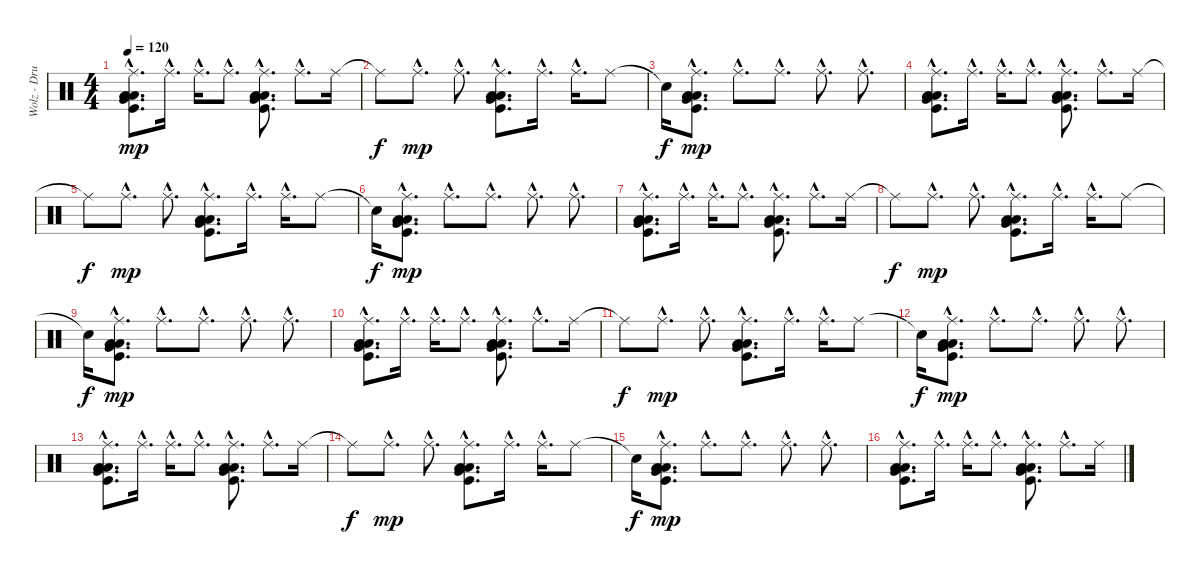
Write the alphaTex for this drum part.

\track ("Wolz - Drums" "Wolz - Dru") {instrument percussion}
\staff {score}
\articulation defaults
\ts (4 4)
\tempo 120
\clef neutral
\ks c
("Ride (middle)"{hac} "Low Tom (hit)"{hac} "Very Low Tom (hit)"{hac} "Low Floor Tom (hit)"{hac} "Kick (hit)"{hac}).8{d bu 60 dy mp} "Ride (middle)"{hac}.16{d} "Ride (middle)"{hac}.16{d} "Ride (middle)"{hac}.8{d} ("Ride (middle)"{hac} "Low Tom (hit)"{hac} "Very Low Tom (hit)"{hac} "Low Floor Tom (hit)"{hac} "Kick (hit)"{hac}).8{d bu 60} "Ride (middle)"{hac}.8{d} "Ride (middle)".16 |
"Ride (middle)"{t}.8{dy f} "Ride (middle)"{hac}.8{d dy mp} "Ride (middle)"{hac}.8{d bu 60} ("Ride (middle)"{hac} "Low Tom (hit)"{hac} "Very Low Tom (hit)"{hac} "Low Floor Tom (hit)"{hac} "Kick (hit)"{hac}).8{d bu 60} "Ride (middle)"{hac}.16{d} "Ride (middle)"{hac}.16{d} "Ride (middle)".8 |
"Snare (hit)"{t}.16{dy f} ("Ride (middle)"{hac} "Low Tom (hit)"{hac} "Very Low Tom (hit)"{hac} "Low Floor Tom (hit)"{hac} "Kick (hit)"{hac}).8{d bu 60 dy mp} "Ride (middle)"{hac}.8{d} "Ride (middle)"{hac}.8{d} "Ride (middle)"{hac}.8{d} "Ride (middle)"{hac}.8{d} |
("Ride (middle)"{hac} "Low Tom (hit)"{hac} "Very Low Tom (hit)"{hac} "Low Floor Tom (hit)"{hac} "Kick (hit)"{hac}).8{d bu 60} "Ride (middle)"{hac}.16{d} "Ride (middle)"{hac}.16{d} "Ride (middle)"{hac}.8{d} ("Ride (middle)"{hac} "Low Tom (hit)"{hac} "Very Low Tom (hit)"{hac} "Low Floor Tom (hit)"{hac} "Kick (hit)"{hac}).8{d bu 60} "Ride (middle)"{hac}.8{d} "Ride (middle)".16 |
"Ride (middle)"{t}.8{dy f} "Ride (middle)"{hac}.8{d dy mp} "Ride (middle)"{hac}.8{d bu 60} ("Ride (middle)"{hac} "Low Tom (hit)"{hac} "Very Low Tom (hit)"{hac} "Low Floor Tom (hit)"{hac} "Kick (hit)"{hac}).8{d bu 60} "Ride (middle)"{hac}.16{d} "Ride (middle)"{hac}.16{d} "Ride (middle)".8 |
"Snare (hit)"{t}.16{dy f} ("Ride (middle)"{hac} "Low Tom (hit)"{hac} "Very Low Tom (hit)"{hac} "Low Floor Tom (hit)"{hac} "Kick (hit)"{hac}).8{d bu 60 dy mp} "Ride (middle)"{hac}.8{d} "Ride (middle)"{hac}.8{d} "Ride (middle)"{hac}.8{d} "Ride (middle)"{hac}.8{d} |
("Ride (middle)"{hac} "Low Tom (hit)"{hac} "Very Low Tom (hit)"{hac} "Low Floor Tom (hit)"{hac} "Kick (hit)"{hac}).8{d bu 60} "Ride (middle)"{hac}.16{d} "Ride (middle)"{hac}.16{d} "Ride (middle)"{hac}.8{d} ("Ride (middle)"{hac} "Low Tom (hit)"{hac} "Very Low Tom (hit)"{hac} "Low Floor Tom (hit)"{hac} "Kick (hit)"{hac}).8{d bu 60} "Ride (middle)"{hac}.8{d} "Ride (middle)".16 |
"Ride (middle)"{t}.8{dy f} "Ride (middle)"{hac}.8{d dy mp} "Ride (middle)"{hac}.8{d bu 60} ("Ride (middle)"{hac} "Low Tom (hit)"{hac} "Very Low Tom (hit)"{hac} "Low Floor Tom (hit)"{hac} "Kick (hit)"{hac}).8{d bu 60} "Ride (middle)"{hac}.16{d} "Ride (middle)"{hac}.16{d} "Ride (middle)".8 |
"Snare (hit)"{t}.16{dy f} ("Ride (middle)"{hac} "Low Tom (hit)"{hac} "Very Low Tom (hit)"{hac} "Low Floor Tom (hit)"{hac} "Kick (hit)"{hac}).8{d bu 60 dy mp} "Ride (middle)"{hac}.8{d} "Ride (middle)"{hac}.8{d} "Ride (middle)"{hac}.8{d} "Ride (middle)"{hac}.8{d} |
("Ride (middle)"{hac} "Low Tom (hit)"{hac} "Very Low Tom (hit)"{hac} "Low Floor Tom (hit)"{hac} "Kick (hit)"{hac}).8{d bu 60} "Ride (middle)"{hac}.16{d} "Ride (middle)"{hac}.16{d} "Ride (middle)"{hac}.8{d} ("Ride (middle)"{hac} "Low Tom (hit)"{hac} "Very Low Tom (hit)"{hac} "Low Floor Tom (hit)"{hac} "Kick (hit)"{hac}).8{d bu 60} "Ride (middle)"{hac}.8{d} "Ride (middle)".16 |
"Ride (middle)"{t}.8{dy f} "Ride (middle)"{hac}.8{d dy mp} "Ride (middle)"{hac}.8{d bu 60} ("Ride (middle)"{hac} "Low Tom (hit)"{hac} "Very Low Tom (hit)"{hac} "Low Floor Tom (hit)"{hac} "Kick (hit)"{hac}).8{d bu 60} "Ride (middle)"{hac}.16{d} "Ride (middle)"{hac}.16{d} "Ride (middle)".8 |
"Snare (hit)"{t}.16{dy f} ("Ride (middle)"{hac} "Low Tom (hit)"{hac} "Very Low Tom (hit)"{hac} "Low Floor Tom (hit)"{hac} "Kick (hit)"{hac}).8{d bu 60 dy mp} "Ride (middle)"{hac}.8{d} "Ride (middle)"{hac}.8{d} "Ride (middle)"{hac}.8{d} "Ride (middle)"{hac}.8{d} |
("Ride (middle)"{hac} "Low Tom (hit)"{hac} "Very Low Tom (hit)"{hac} "Low Floor Tom (hit)"{hac} "Kick (hit)"{hac}).8{d bu 60} "Ride (middle)"{hac}.16{d} "Ride (middle)"{hac}.16{d} "Ride (middle)"{hac}.8{d} ("Ride (middle)"{hac} "Low Tom (hit)"{hac} "Very Low Tom (hit)"{hac} "Low Floor Tom (hit)"{hac} "Kick (hit)"{hac}).8{d bu 60} "Ride (middle)"{hac}.8{d} "Ride (middle)".16 |
"Ride (middle)"{t}.8{dy f} "Ride (middle)"{hac}.8{d dy mp} "Ride (middle)"{hac}.8{d bu 60} ("Ride (middle)"{hac} "Low Tom (hit)"{hac} "Very Low Tom (hit)"{hac} "Low Floor Tom (hit)"{hac} "Kick (hit)"{hac}).8{d bu 60} "Ride (middle)"{hac}.16{d} "Ride (middle)"{hac}.16{d} "Ride (middle)".8 |
"Snare (hit)"{t}.16{dy f} ("Ride (middle)"{hac} "Low Tom (hit)"{hac} "Very Low Tom (hit)"{hac} "Low Floor Tom (hit)"{hac} "Kick (hit)"{hac}).8{d bu 60 dy mp} "Ride (middle)"{hac}.8{d} "Ride (middle)"{hac}.8{d} "Ride (middle)"{hac}.8{d} "Ride (middle)"{hac}.8{d} |
("Ride (middle)"{hac} "Low Tom (hit)"{hac} "Very Low Tom (hit)"{hac} "Low Floor Tom (hit)"{hac} "Kick (hit)"{hac}).8{d bu 60} "Ride (middle)"{hac}.16{d} "Ride (middle)"{hac}.16{d} "Ride (middle)"{hac}.8{d} ("Ride (middle)"{hac} "Low Tom (hit)"{hac} "Very Low Tom (hit)"{hac} "Low Floor Tom (hit)"{hac} "Kick (hit)"{hac}).8{d bu 60} "Ride (middle)"{hac}.8{d} "Ride (middle)".16
